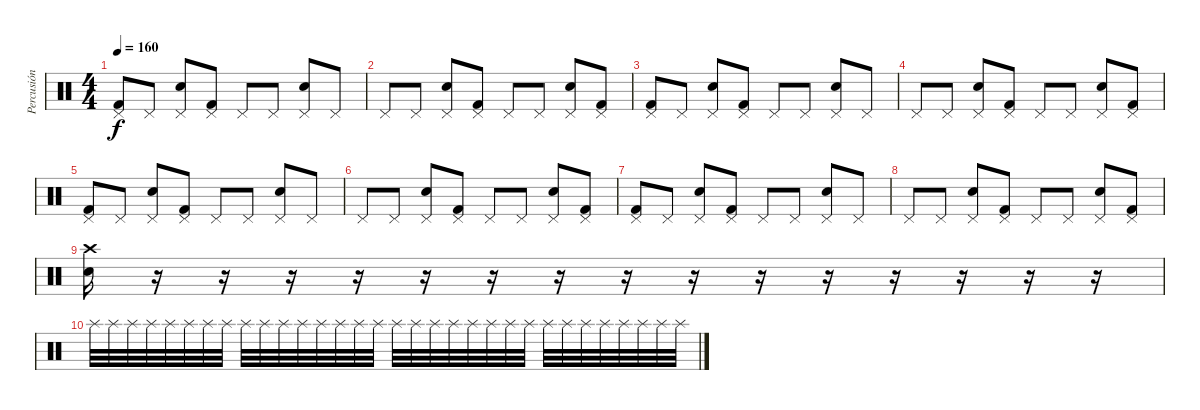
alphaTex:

\track ("Percusión" "Percusión") {instrument percussion}
\staff {score}
\articulation defaults
\ts (4 4)
\tempo 160
\clef neutral
\ks c
("Pedal Hi-Hat (hit)" "Kick (hit) 2").8{dy f} "Pedal Hi-Hat (hit)".8 ("Pedal Hi-Hat (hit)" "Electric Snare (hit)").8 ("Pedal Hi-Hat (hit)" "Kick (hit) 2").8 "Pedal Hi-Hat (hit)".8 "Pedal Hi-Hat (hit)".8 ("Pedal Hi-Hat (hit)" "Electric Snare (hit)").8 "Pedal Hi-Hat (hit)".8 |
"Pedal Hi-Hat (hit)".8 "Pedal Hi-Hat (hit)".8 ("Pedal Hi-Hat (hit)" "Electric Snare (hit)").8 ("Pedal Hi-Hat (hit)" "Kick (hit) 2").8 "Pedal Hi-Hat (hit)".8 "Pedal Hi-Hat (hit)".8 ("Pedal Hi-Hat (hit)" "Electric Snare (hit)").8 ("Pedal Hi-Hat (hit)" "Kick (hit) 2").8 |
("Pedal Hi-Hat (hit)" "Kick (hit) 2").8 "Pedal Hi-Hat (hit)".8 ("Pedal Hi-Hat (hit)" "Electric Snare (hit)").8 ("Pedal Hi-Hat (hit)" "Kick (hit) 2").8 "Pedal Hi-Hat (hit)".8 "Pedal Hi-Hat (hit)".8 ("Pedal Hi-Hat (hit)" "Electric Snare (hit)").8 "Pedal Hi-Hat (hit)".8 |
"Pedal Hi-Hat (hit)".8 "Pedal Hi-Hat (hit)".8 ("Pedal Hi-Hat (hit)" "Electric Snare (hit)").8 ("Pedal Hi-Hat (hit)" "Kick (hit) 2").8 "Pedal Hi-Hat (hit)".8 "Pedal Hi-Hat (hit)".8 ("Pedal Hi-Hat (hit)" "Electric Snare (hit)").8 ("Pedal Hi-Hat (hit)" "Kick (hit) 2").8 |
("Pedal Hi-Hat (hit)" "Kick (hit) 2").8 "Pedal Hi-Hat (hit)".8 ("Pedal Hi-Hat (hit)" "Electric Snare (hit)").8 ("Pedal Hi-Hat (hit)" "Kick (hit) 2").8 "Pedal Hi-Hat (hit)".8 "Pedal Hi-Hat (hit)".8 ("Pedal Hi-Hat (hit)" "Electric Snare (hit)").8 "Pedal Hi-Hat (hit)".8 |
"Pedal Hi-Hat (hit)".8 "Pedal Hi-Hat (hit)".8 ("Pedal Hi-Hat (hit)" "Electric Snare (hit)").8 ("Pedal Hi-Hat (hit)" "Kick (hit) 2").8 "Pedal Hi-Hat (hit)".8 "Pedal Hi-Hat (hit)".8 ("Pedal Hi-Hat (hit)" "Electric Snare (hit)").8 ("Pedal Hi-Hat (hit)" "Kick (hit) 2").8 |
("Pedal Hi-Hat (hit)" "Kick (hit) 2").8 "Pedal Hi-Hat (hit)".8 ("Pedal Hi-Hat (hit)" "Electric Snare (hit)").8 ("Pedal Hi-Hat (hit)" "Kick (hit) 2").8 "Pedal Hi-Hat (hit)".8 "Pedal Hi-Hat (hit)".8 ("Pedal Hi-Hat (hit)" "Electric Snare (hit)").8 "Pedal Hi-Hat (hit)".8 |
"Pedal Hi-Hat (hit)".8 "Pedal Hi-Hat (hit)".8 ("Pedal Hi-Hat (hit)" "Electric Snare (hit)").8 ("Pedal Hi-Hat (hit)" "Kick (hit) 2").8 "Pedal Hi-Hat (hit)".8 "Pedal Hi-Hat (hit)".8 ("Pedal Hi-Hat (hit)" "Electric Snare (hit)").8 ("Pedal Hi-Hat (hit)" "Kick (hit) 2").8 |
("Crash high (hit)" "Snare (hit)").16 r.16 r.16 r.16 r.16 r.16 r.16 r.16 r.16 r.16 r.16 r.16 r.16 r.16 r.16 r.16 |
"Splash (hit)".32 "Splash (hit)".32 "Splash (hit)".32 "Splash (hit)".32 "Splash (hit)".32 "Splash (hit)".32 "Splash (hit)".32 "Splash (hit)".32 "Splash (hit)".32 "Splash (hit)".32 "Splash (hit)".32 "Splash (hit)".32 "Splash (hit)".32 "Splash (hit)".32 "Splash (hit)".32 "Splash (hit)".32 "Splash (hit)".32 "Splash (hit)".32 "Splash (hit)".32 "Splash (hit)".32 "Splash (hit)".32 "Splash (hit)".32 "Splash (hit)".32 "Splash (hit)".32 "Splash (hit)".32 "Splash (hit)".32 "Splash (hit)".32 "Splash (hit)".32 "Splash (hit)".32 "Splash (hit)".32 "Splash (hit)".32 "Splash (hit)".32
